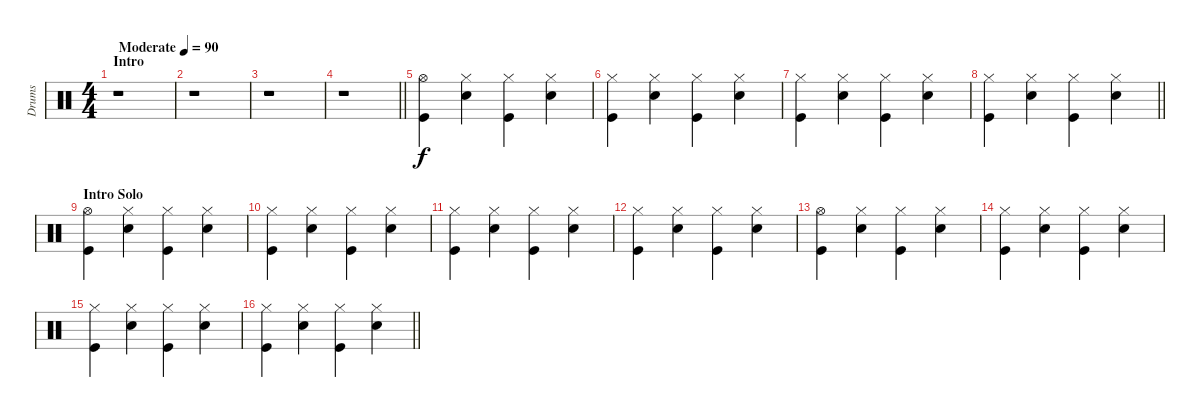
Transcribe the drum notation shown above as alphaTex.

\track ("Drums" "Drums") {instrument percussion}
\staff {score}
\articulation defaults
\ts (4 4)
\section ("" "Intro")
\tempo (90 "Moderate")
\clef neutral
\ks c
r.1{dy f} |
r.1 |
r.1 |
\barLineRight lightlight
r.1 |
("Hi-Hat (open)" "Kick (hit)").4 ("Hi-Hat (closed)" "Snare (hit) 2").4 ("Hi-Hat (closed)" "Kick (hit)").4 ("Hi-Hat (closed)" "Snare (hit) 2").4 |
("Hi-Hat (closed)" "Kick (hit)").4 ("Hi-Hat (closed)" "Snare (hit) 2").4 ("Hi-Hat (closed)" "Kick (hit)").4 ("Hi-Hat (closed)" "Snare (hit) 2").4 |
("Hi-Hat (closed)" "Kick (hit)").4 ("Hi-Hat (closed)" "Snare (hit) 2").4 ("Hi-Hat (closed)" "Kick (hit)").4 ("Hi-Hat (closed)" "Snare (hit) 2").4 |
\barLineRight lightlight
("Hi-Hat (closed)" "Kick (hit)").4 ("Hi-Hat (closed)" "Snare (hit) 2").4 ("Hi-Hat (closed)" "Kick (hit)").4 ("Hi-Hat (closed)" "Snare (hit) 2").4 |
\section ("" "Intro Solo")
("Hi-Hat (open)" "Kick (hit)").4 ("Hi-Hat (closed)" "Snare (hit) 2").4 ("Hi-Hat (closed)" "Kick (hit)").4 ("Hi-Hat (closed)" "Snare (hit) 2").4 |
("Hi-Hat (closed)" "Kick (hit)").4 ("Hi-Hat (closed)" "Snare (hit) 2").4 ("Hi-Hat (closed)" "Kick (hit)").4 ("Hi-Hat (closed)" "Snare (hit) 2").4 |
("Hi-Hat (closed)" "Kick (hit)").4 ("Hi-Hat (closed)" "Snare (hit) 2").4 ("Hi-Hat (closed)" "Kick (hit)").4 ("Hi-Hat (closed)" "Snare (hit) 2").4 |
("Hi-Hat (closed)" "Kick (hit)").4 ("Hi-Hat (closed)" "Snare (hit) 2").4 ("Hi-Hat (closed)" "Kick (hit)").4 ("Hi-Hat (closed)" "Snare (hit) 2").4 |
("Hi-Hat (open)" "Kick (hit)").4 ("Hi-Hat (closed)" "Snare (hit) 2").4 ("Hi-Hat (closed)" "Kick (hit)").4 ("Hi-Hat (closed)" "Snare (hit) 2").4 |
("Hi-Hat (closed)" "Kick (hit)").4 ("Hi-Hat (closed)" "Snare (hit) 2").4 ("Hi-Hat (closed)" "Kick (hit)").4 ("Hi-Hat (closed)" "Snare (hit) 2").4 |
("Hi-Hat (closed)" "Kick (hit)").4 ("Hi-Hat (closed)" "Snare (hit) 2").4 ("Hi-Hat (closed)" "Kick (hit)").4 ("Hi-Hat (closed)" "Snare (hit) 2").4 |
\barLineRight lightlight
("Hi-Hat (closed)" "Kick (hit)").4 ("Hi-Hat (closed)" "Snare (hit) 2").4 ("Hi-Hat (closed)" "Kick (hit)").4 ("Hi-Hat (closed)" "Snare (hit) 2").4
